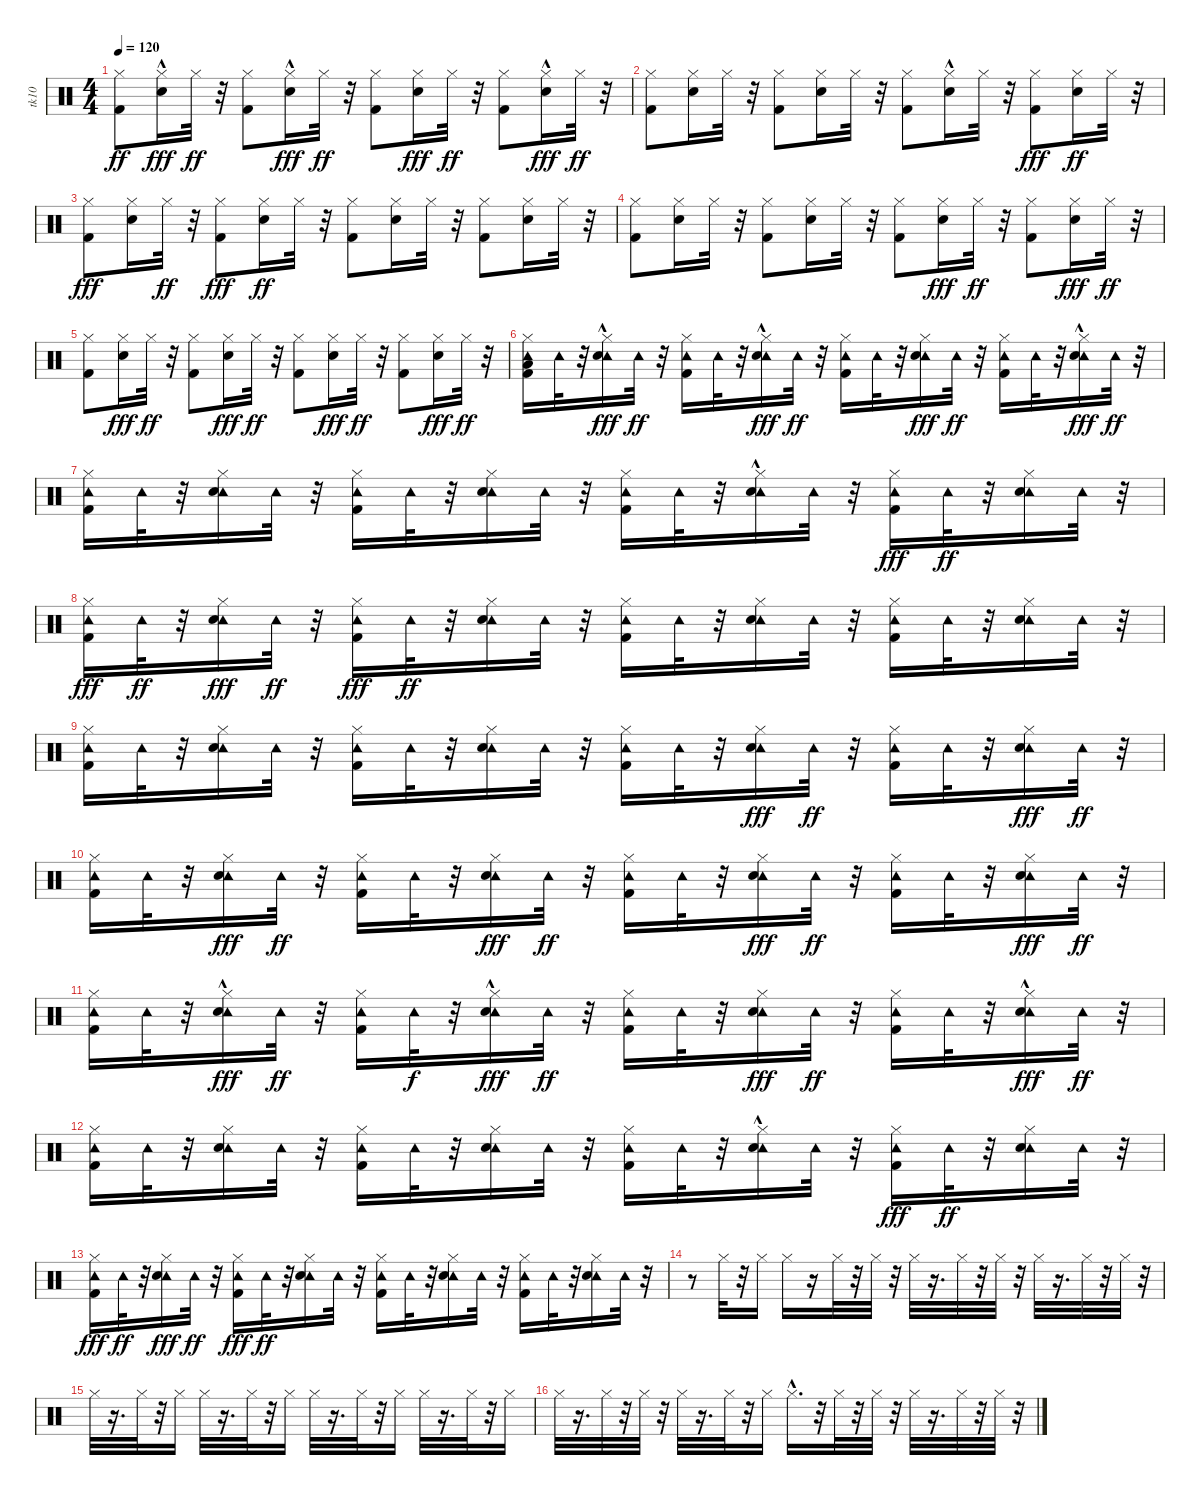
\track ("tk10" "tk10") {instrument percussion}
\staff {score}
\articulation defaults
\ts (4 4)
\tempo 120
\clef neutral
\ks c
("Hi-Hat (closed)" "Kick (hit) 2").8{dy ff} ("Hi-Hat (closed)" "Snare (hit) 2"{hac}).16{dy fff} "Hi-Hat (closed)".32{dy ff} r.32 ("Hi-Hat (closed)" "Kick (hit) 2").8 ("Hi-Hat (closed)" "Snare (hit) 2"{hac}).16{dy fff} "Hi-Hat (closed)".32{dy ff} r.32 ("Hi-Hat (closed)" "Kick (hit) 2").8 ("Hi-Hat (closed)" "Snare (hit) 2").16{dy fff} "Hi-Hat (closed)".32{dy ff} r.32 ("Hi-Hat (closed)" "Kick (hit) 2").8 ("Hi-Hat (closed)" "Snare (hit) 2"{hac}).16{dy fff} "Hi-Hat (closed)".32{dy ff} r.32 |
("Hi-Hat (closed)" "Kick (hit) 2").8 ("Hi-Hat (closed)" "Snare (hit) 2").16 "Hi-Hat (closed)".32 r.32 ("Hi-Hat (closed)" "Kick (hit) 2").8 ("Hi-Hat (closed)" "Snare (hit) 2").16 "Hi-Hat (closed)".32 r.32 ("Hi-Hat (closed)" "Kick (hit) 2").8 ("Hi-Hat (closed)" "Snare (hit) 2"{hac}).16 "Hi-Hat (closed)".32 r.32 ("Hi-Hat (closed)" "Kick (hit) 2").8{dy fff} ("Hi-Hat (closed)" "Snare (hit) 2").16{dy ff} "Hi-Hat (closed)".32 r.32 |
("Hi-Hat (closed)" "Kick (hit) 2").8{dy fff} ("Hi-Hat (closed)" "Snare (hit) 2").16 "Hi-Hat (closed)".32{dy ff} r.32 ("Hi-Hat (closed)" "Kick (hit) 2").8{dy fff} ("Hi-Hat (closed)" "Snare (hit) 2").16{dy ff} "Hi-Hat (closed)".32 r.32 ("Hi-Hat (closed)" "Kick (hit) 2").8 ("Hi-Hat (closed)" "Snare (hit) 2").16 "Hi-Hat (closed)".32 r.32 ("Hi-Hat (closed)" "Kick (hit) 2").8 ("Hi-Hat (closed)" "Snare (hit) 2").16 "Hi-Hat (closed)".32 r.32 |
("Hi-Hat (closed)" "Kick (hit) 2").8 ("Hi-Hat (closed)" "Snare (hit) 2").16 "Hi-Hat (closed)".32 r.32 ("Hi-Hat (closed)" "Kick (hit) 2").8 ("Hi-Hat (closed)" "Snare (hit) 2").16 "Hi-Hat (closed)".32 r.32 ("Hi-Hat (closed)" "Kick (hit) 2").8 ("Hi-Hat (closed)" "Snare (hit) 2").16{dy fff} "Hi-Hat (closed)".32{dy ff} r.32 ("Hi-Hat (closed)" "Kick (hit) 2").8 ("Hi-Hat (closed)" "Snare (hit) 2").16{dy fff} "Hi-Hat (closed)".32{dy ff} r.32 |
("Hi-Hat (closed)" "Kick (hit) 2").8 ("Hi-Hat (closed)" "Snare (hit) 2").16{dy fff} "Hi-Hat (closed)".32{dy ff} r.32 ("Hi-Hat (closed)" "Kick (hit) 2").8 ("Hi-Hat (closed)" "Snare (hit) 2").16{dy fff} "Hi-Hat (closed)".32{dy ff} r.32 ("Hi-Hat (closed)" "Kick (hit) 2").8 ("Hi-Hat (closed)" "Snare (hit) 2").16{dy fff} "Hi-Hat (closed)".32{dy ff} r.32 ("Hi-Hat (closed)" "Kick (hit) 2").8 ("Hi-Hat (closed)" "Snare (hit) 2").16{dy fff} "Hi-Hat (closed)".32{dy ff} r.32 |
("Hi-Hat (closed)" "Tambourine (hit)" "Low Floor Tom (hit)" "Kick (hit) 2").16 "Tambourine (hit)".32 r.32 ("Hi-Hat (closed)" "Tambourine (hit)" "Snare (hit) 2"{hac}).16{dy fff} "Tambourine (hit)".32{dy ff} r.32 ("Hi-Hat (closed)" "Tambourine (hit)" "Kick (hit) 2").16 "Tambourine (hit)".32 r.32 ("Tambourine (hit)" "Hi-Hat (closed)" "Snare (hit) 2"{hac}).16{dy fff} "Tambourine (hit)".32{dy ff} r.32 ("Tambourine (hit)" "Hi-Hat (closed)" "Kick (hit) 2").16 "Tambourine (hit)".32 r.32 ("Tambourine (hit)" "Hi-Hat (closed)" "Snare (hit) 2").16{dy fff} "Tambourine (hit)".32{dy ff} r.32 ("Hi-Hat (closed)" "Tambourine (hit)" "Kick (hit) 2").16 "Tambourine (hit)".32 r.32 ("Hi-Hat (closed)" "Tambourine (hit)" "Snare (hit) 2"{hac}).16{dy fff} "Tambourine (hit)".32{dy ff} r.32 |
("Tambourine (hit)" "Hi-Hat (closed)" "Kick (hit) 2").16 "Tambourine (hit)".32 r.32 ("Hi-Hat (closed)" "Tambourine (hit)" "Snare (hit) 2").16 "Tambourine (hit)".32 r.32 ("Tambourine (hit)" "Hi-Hat (closed)" "Kick (hit) 2").16 "Tambourine (hit)".32 r.32 ("Tambourine (hit)" "Hi-Hat (closed)" "Snare (hit) 2").16 "Tambourine (hit)".32 r.32 ("Tambourine (hit)" "Hi-Hat (closed)" "Kick (hit) 2").16 "Tambourine (hit)".32 r.32 ("Tambourine (hit)" "Hi-Hat (closed)" "Snare (hit) 2"{hac}).16 "Tambourine (hit)".32 r.32 ("Tambourine (hit)" "Hi-Hat (closed)" "Kick (hit) 2").16{dy fff} "Tambourine (hit)".32{dy ff} r.32 ("Hi-Hat (closed)" "Tambourine (hit)" "Snare (hit) 2").16 "Tambourine (hit)".32 r.32 |
("Tambourine (hit)" "Hi-Hat (closed)" "Kick (hit) 2").16{dy fff} "Tambourine (hit)".32{dy ff} r.32 ("Hi-Hat (closed)" "Tambourine (hit)" "Snare (hit) 2").16{dy fff} "Tambourine (hit)".32{dy ff} r.32 ("Tambourine (hit)" "Hi-Hat (closed)" "Kick (hit) 2").16{dy fff} "Tambourine (hit)".32{dy ff} r.32 ("Tambourine (hit)" "Hi-Hat (closed)" "Snare (hit) 2").16 "Tambourine (hit)".32 r.32 ("Hi-Hat (closed)" "Tambourine (hit)" "Kick (hit) 2").16 "Tambourine (hit)".32 r.32 ("Hi-Hat (closed)" "Tambourine (hit)" "Snare (hit) 2").16 "Tambourine (hit)".32 r.32 ("Tambourine (hit)" "Hi-Hat (closed)" "Kick (hit) 2").16 "Tambourine (hit)".32 r.32 ("Tambourine (hit)" "Hi-Hat (closed)" "Snare (hit) 2").16 "Tambourine (hit)".32 r.32 |
("Tambourine (hit)" "Hi-Hat (closed)" "Kick (hit) 2").16 "Tambourine (hit)".32 r.32 ("Hi-Hat (closed)" "Tambourine (hit)" "Snare (hit) 2").16 "Tambourine (hit)".32 r.32 ("Tambourine (hit)" "Hi-Hat (closed)" "Kick (hit) 2").16 "Tambourine (hit)".32 r.32 ("Tambourine (hit)" "Hi-Hat (closed)" "Snare (hit) 2").16 "Tambourine (hit)".32 r.32 ("Tambourine (hit)" "Hi-Hat (closed)" "Kick (hit) 2").16 "Tambourine (hit)".32 r.32 ("Tambourine (hit)" "Hi-Hat (closed)" "Snare (hit) 2").16{dy fff} "Tambourine (hit)".32{dy ff} r.32 ("Tambourine (hit)" "Hi-Hat (closed)" "Kick (hit) 2").16 "Tambourine (hit)".32 r.32 ("Hi-Hat (closed)" "Tambourine (hit)" "Snare (hit) 2").16{dy fff} "Tambourine (hit)".32{dy ff} r.32 |
("Tambourine (hit)" "Hi-Hat (closed)" "Kick (hit) 2").16 "Tambourine (hit)".32 r.32 ("Tambourine (hit)" "Hi-Hat (closed)" "Snare (hit) 2").16{dy fff} "Tambourine (hit)".32{dy ff} r.32 ("Tambourine (hit)" "Hi-Hat (closed)" "Kick (hit) 2").16 "Tambourine (hit)".32 r.32 ("Tambourine (hit)" "Hi-Hat (closed)" "Snare (hit) 2").16{dy fff} "Tambourine (hit)".32{dy ff} r.32 ("Hi-Hat (closed)" "Tambourine (hit)" "Kick (hit) 2").16 "Tambourine (hit)".32 r.32 ("Tambourine (hit)" "Hi-Hat (closed)" "Snare (hit) 2").16{dy fff} "Tambourine (hit)".32{dy ff} r.32 ("Tambourine (hit)" "Hi-Hat (closed)" "Kick (hit) 2").16 "Tambourine (hit)".32 r.32 ("Hi-Hat (closed)" "Tambourine (hit)" "Snare (hit) 2").16{dy fff} "Tambourine (hit)".32{dy ff} r.32 |
("Hi-Hat (closed)" "Tambourine (hit)" "Kick (hit) 2").16 "Tambourine (hit)".32 r.32 ("Tambourine (hit)" "Hi-Hat (closed)" "Snare (hit) 2"{hac}).16{dy fff} "Tambourine (hit)".32{dy ff} r.32 ("Tambourine (hit)" "Hi-Hat (closed)" "Kick (hit) 2").16 "Tambourine (hit)".32{dy f} r.32 ("Tambourine (hit)" "Hi-Hat (closed)" "Snare (hit) 2"{hac}).16{dy fff} "Tambourine (hit)".32{dy ff} r.32 ("Tambourine (hit)" "Hi-Hat (closed)" "Kick (hit) 2").16 "Tambourine (hit)".32 r.32 ("Tambourine (hit)" "Hi-Hat (closed)" "Snare (hit) 2").16{dy fff} "Tambourine (hit)".32{dy ff} r.32 ("Tambourine (hit)" "Hi-Hat (closed)" "Kick (hit) 2").16 "Tambourine (hit)".32 r.32 ("Tambourine (hit)" "Hi-Hat (closed)" "Snare (hit) 2"{hac}).16{dy fff} "Tambourine (hit)".32{dy ff} r.32 |
("Tambourine (hit)" "Hi-Hat (closed)" "Kick (hit) 2").16 "Tambourine (hit)".32 r.32 ("Tambourine (hit)" "Hi-Hat (closed)" "Snare (hit) 2").16 "Tambourine (hit)".32 r.32 ("Tambourine (hit)" "Hi-Hat (closed)" "Kick (hit) 2").16 "Tambourine (hit)".32 r.32 ("Tambourine (hit)" "Hi-Hat (closed)" "Snare (hit) 2").16 "Tambourine (hit)".32 r.32 ("Tambourine (hit)" "Hi-Hat (closed)" "Kick (hit) 2").16 "Tambourine (hit)".32 r.32 ("Tambourine (hit)" "Hi-Hat (closed)" "Snare (hit) 2"{hac}).16 "Tambourine (hit)".32 r.32 ("Hi-Hat (closed)" "Tambourine (hit)" "Kick (hit) 2").16{dy fff} "Tambourine (hit)".32{dy ff} r.32 ("Tambourine (hit)" "Hi-Hat (closed)" "Snare (hit) 2").16 "Tambourine (hit)".32 r.32 |
("Tambourine (hit)" "Hi-Hat (closed)" "Kick (hit) 2").16{dy fff} "Tambourine (hit)".32{dy ff} r.32 ("Tambourine (hit)" "Hi-Hat (closed)" "Snare (hit) 2").16{dy fff} "Tambourine (hit)".32{dy ff} r.32 ("Tambourine (hit)" "Hi-Hat (closed)" "Kick (hit) 2").16{dy fff} "Tambourine (hit)".32{dy ff} r.32 ("Hi-Hat (closed)" "Tambourine (hit)" "Snare (hit) 2").16 "Tambourine (hit)".32 r.32 ("Tambourine (hit)" "Hi-Hat (closed)" "Kick (hit) 2").16 "Tambourine (hit)".32 r.32 ("Tambourine (hit)" "Hi-Hat (closed)" "Snare (hit) 2").16 "Tambourine (hit)".32 r.32 ("Tambourine (hit)" "Hi-Hat (closed)" "Kick (hit) 2").16 "Tambourine (hit)".32 r.32 ("Hi-Hat (closed)" "Tambourine (hit)" "Snare (hit) 2").16 "Tambourine (hit)".32 r.32 |
r.8 "Hi-Hat (closed)".32 r.32 "Hi-Hat (closed)".16 "Hi-Hat (closed)".16 r.16 "Hi-Hat (closed)".32 r.32 "Hi-Hat (closed)".32 r.32 "Hi-Hat (closed)".32 r.16{d} "Hi-Hat (closed)".32 r.32 "Hi-Hat (closed)".32 r.32 "Hi-Hat (closed)".32 r.16{d} "Hi-Hat (closed)".32 r.32 "Hi-Hat (closed)".32 r.32 |
"Hi-Hat (closed)".32 r.16{d} "Hi-Hat (closed)".32 r.32 "Hi-Hat (closed)".16 "Hi-Hat (closed)".32 r.16{d} "Hi-Hat (closed)".32 r.32 "Hi-Hat (closed)".16 "Hi-Hat (closed)".32 r.16{d} "Hi-Hat (closed)".32 r.32 "Hi-Hat (closed)".16 "Hi-Hat (closed)".32 r.16{d} "Hi-Hat (closed)".32 r.32 "Hi-Hat (closed)".16 |
"Hi-Hat (closed)".32 r.16{d} "Hi-Hat (closed)".32 r.32 "Hi-Hat (closed)".32 r.32 "Hi-Hat (closed)".32 r.16{d} "Hi-Hat (closed)".32 r.32 "Hi-Hat (closed)".16 "Hi-Hat (closed)"{hac}.16{d} r.32 "Hi-Hat (closed)".32 r.32 "Hi-Hat (closed)".32 r.32 "Hi-Hat (closed)".32 r.16{d} "Hi-Hat (closed)".32 r.32 "Hi-Hat (closed)".32 r.32
